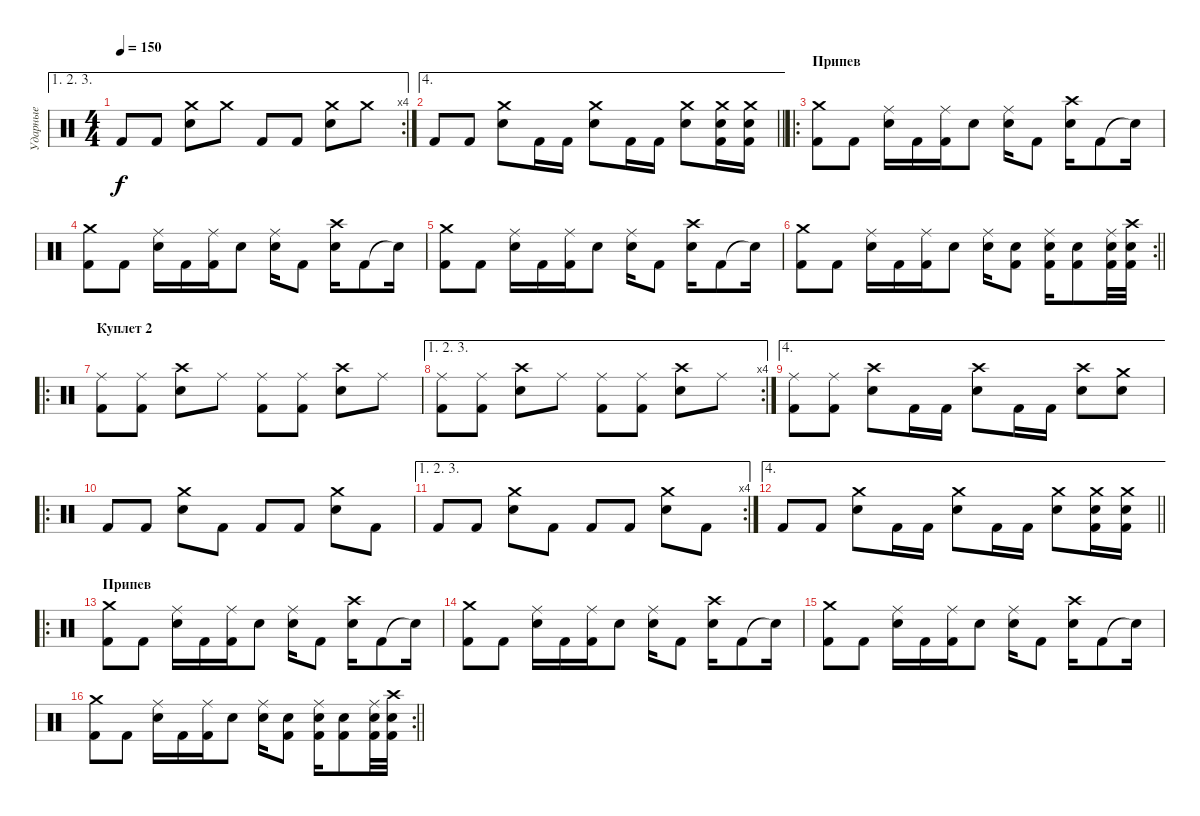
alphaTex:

\track ("Ударные" "Ударные") {instrument percussion}
\staff {score}
\articulation defaults
\ae (1 2 3)
\rc 4
\ts (4 4)
\tempo 150
\clef neutral
\ks c "Kick (hit) 2".8{dy f} "Kick (hit) 2".8
("Crash medium (hit)" "Electric Snare (hit)").8 "Crash medium (hit)".8 "Kick (hit) 2".8 "Kick (hit) 2".8 ("Crash medium (hit)" "Electric Snare (hit)").8 "Crash medium (hit)".8 |
\ae 4
\barLineRight lightlight "Kick (hit) 2".8 "Kick (hit) 2".8
("Crash medium (hit)" "Electric Snare (hit)").8 "Kick (hit) 2".16 "Kick (hit) 2".16 ("Crash medium (hit)" "Electric Snare (hit)").8 "Kick (hit) 2".16 "Kick (hit) 2".16 ("Crash medium (hit)" "Electric Snare (hit)").8 ("Crash medium (hit)" "Electric Snare (hit)" "Kick (hit) 2").16 ("Crash medium (hit)" "Electric Snare (hit)" "Kick (hit) 2").16 |
\ro
\section ("" "Припев")
("Crash medium (hit)" "Kick (hit) 2").8 "Kick (hit) 2".8 ("Ride (middle)" "Electric Snare (hit)").16 "Kick (hit) 2".16 ("Ride (middle)" "Kick (hit) 2").16 "Electric Snare (hit)".8 ("Ride (middle)" "Electric Snare (hit)").16 "Kick (hit) 2".8 ("Crash high (hit)" "Electric Snare (hit)").16 "Kick (hit) 2".8 "Snare (hit)"{t}.16 |
("Crash medium (hit)" "Kick (hit) 2").8 "Kick (hit) 2".8 ("Ride (middle)" "Electric Snare (hit)").16 "Kick (hit) 2".16 ("Ride (middle)" "Kick (hit) 2").16 "Electric Snare (hit)".8 ("Ride (middle)" "Electric Snare (hit)").16 "Kick (hit) 2".8 ("Crash high (hit)" "Electric Snare (hit)").16 "Kick (hit) 2".8 "Snare (hit)"{t}.16 |
("Crash medium (hit)" "Kick (hit) 2").8 "Kick (hit) 2".8 ("Ride (middle)" "Electric Snare (hit)").16 "Kick (hit) 2".16 ("Ride (middle)" "Kick (hit) 2").16 "Electric Snare (hit)".8 ("Ride (middle)" "Electric Snare (hit)").16 "Kick (hit) 2".8 ("Crash high (hit)" "Electric Snare (hit)").16 "Kick (hit) 2".8 "Snare (hit)"{t}.16 |
\rc 2
\barLineRight lightlight
("Crash medium (hit)" "Kick (hit) 2").8 "Kick (hit) 2".8 ("Ride (middle)" "Electric Snare (hit)").16 "Kick (hit) 2".16 ("Ride (middle)" "Kick (hit) 2").16 "Electric Snare (hit)".8 ("Ride (middle)" "Electric Snare (hit)").16 ("Electric Snare (hit)" "Kick (hit) 2").8 ("Ride (middle)" "Electric Snare (hit)" "Kick (hit) 2").16 ("Electric Snare (hit)" "Kick (hit) 2").8 ("Ride (middle)" "Electric Snare (hit)" "Kick (hit) 2").32 ("Crash high (hit)" "Electric Snare (hit)" "Kick (hit) 2").32 |
\ro
\section ("" "Куплет 2")
("Ride (middle)" "Kick (hit) 2").8 ("Ride (middle)" "Kick (hit) 2").8 ("Crash high (hit)" "Electric Snare (hit)").8 "Ride (middle)".8 ("Ride (middle)" "Kick (hit) 2").8 ("Ride (middle)" "Kick (hit) 2").8 ("Crash high (hit)" "Electric Snare (hit)").8 "Ride (middle)".8 |
\ae (1 2 3)
\rc 4
("Ride (middle)" "Kick (hit) 2").8 ("Ride (middle)" "Kick (hit) 2").8 ("Crash high (hit)" "Electric Snare (hit)").8 "Ride (middle)".8 ("Ride (middle)" "Kick (hit) 2").8 ("Ride (middle)" "Kick (hit) 2").8 ("Crash high (hit)" "Electric Snare (hit)").8 "Ride (middle)".8 |
\ae 4
("Ride (middle)" "Kick (hit) 2").8 ("Ride (middle)" "Kick (hit) 2").8 ("Crash high (hit)" "Electric Snare (hit)").8 "Kick (hit) 2".16 "Kick (hit) 2".16 ("Crash high (hit)" "Electric Snare (hit)").8 "Kick (hit) 2".16 "Kick (hit) 2".16 ("Crash high (hit)" "Electric Snare (hit)").8 ("Crash medium (hit)" "Electric Snare (hit)").8 |
\ro "Kick (hit) 2".8 "Kick (hit) 2".8
("Crash medium (hit)" "Electric Snare (hit)").8 "Kick (hit) 2".8 "Kick (hit) 2".8 "Kick (hit) 2".8 ("Crash medium (hit)" "Electric Snare (hit)").8 "Kick (hit) 2".8 |
\ae (1 2 3)
\rc 4 "Kick (hit) 2".8 "Kick (hit) 2".8
("Crash medium (hit)" "Electric Snare (hit)").8 "Kick (hit) 2".8 "Kick (hit) 2".8 "Kick (hit) 2".8 ("Crash medium (hit)" "Electric Snare (hit)").8 "Kick (hit) 2".8 |
\ae 4
\barLineRight lightlight "Kick (hit) 2".8 "Kick (hit) 2".8
("Crash medium (hit)" "Electric Snare (hit)").8 "Kick (hit) 2".16 "Kick (hit) 2".16 ("Crash medium (hit)" "Electric Snare (hit)").8 "Kick (hit) 2".16 "Kick (hit) 2".16 ("Crash medium (hit)" "Electric Snare (hit)").8 ("Crash medium (hit)" "Electric Snare (hit)" "Kick (hit) 2").16 ("Crash medium (hit)" "Electric Snare (hit)" "Kick (hit) 2").16 |
\ro
\section ("" "Припев")
("Crash medium (hit)" "Kick (hit) 2").8 "Kick (hit) 2".8 ("Ride (middle)" "Electric Snare (hit)").16 "Kick (hit) 2".16 ("Ride (middle)" "Kick (hit) 2").16 "Electric Snare (hit)".8 ("Ride (middle)" "Electric Snare (hit)").16 "Kick (hit) 2".8 ("Crash high (hit)" "Electric Snare (hit)").16 "Kick (hit) 2".8 "Snare (hit)"{t}.16 |
("Crash medium (hit)" "Kick (hit) 2").8 "Kick (hit) 2".8 ("Ride (middle)" "Electric Snare (hit)").16 "Kick (hit) 2".16 ("Ride (middle)" "Kick (hit) 2").16 "Electric Snare (hit)".8 ("Ride (middle)" "Electric Snare (hit)").16 "Kick (hit) 2".8 ("Crash high (hit)" "Electric Snare (hit)").16 "Kick (hit) 2".8 "Snare (hit)"{t}.16 |
("Crash medium (hit)" "Kick (hit) 2").8 "Kick (hit) 2".8 ("Ride (middle)" "Electric Snare (hit)").16 "Kick (hit) 2".16 ("Ride (middle)" "Kick (hit) 2").16 "Electric Snare (hit)".8 ("Ride (middle)" "Electric Snare (hit)").16 "Kick (hit) 2".8 ("Crash high (hit)" "Electric Snare (hit)").16 "Kick (hit) 2".8 "Snare (hit)"{t}.16 |
\rc 2
\barLineRight lightlight
("Crash medium (hit)" "Kick (hit) 2").8 "Kick (hit) 2".8 ("Ride (middle)" "Electric Snare (hit)").16 "Kick (hit) 2".16 ("Ride (middle)" "Kick (hit) 2").16 "Electric Snare (hit)".8 ("Ride (middle)" "Electric Snare (hit)").16 ("Electric Snare (hit)" "Kick (hit) 2").8 ("Ride (middle)" "Electric Snare (hit)" "Kick (hit) 2").16 ("Electric Snare (hit)" "Kick (hit) 2").8 ("Ride (middle)" "Electric Snare (hit)" "Kick (hit) 2").32 ("Crash high (hit)" "Electric Snare (hit)" "Kick (hit) 2").32
